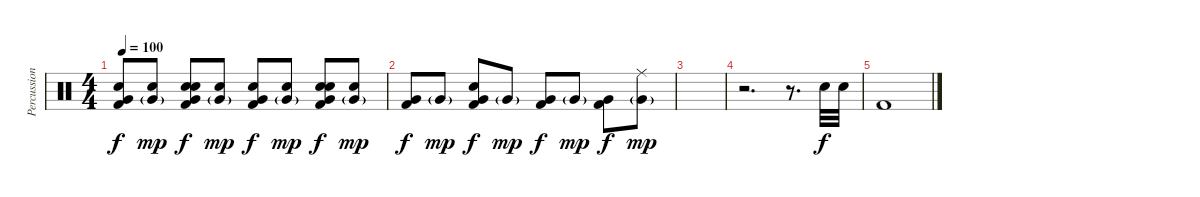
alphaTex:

\track ("Percussion" "Percussion") {instrument percussion}
\staff {score}
\articulation defaults
\ts (4 4)
\tempo 100
\clef neutral
\ks c
("Hand Clap (hit)" "Very Low Tom (hit)" "Kick (hit) 2").8{dy f} ("Hand Clap (hit)" "Very Low Tom (hit)"{g}).8{dy mp} ("Hand Clap (hit)" "Snare (hit) 2" "Very Low Tom (hit)" "Kick (hit) 2").8{dy f} ("Hand Clap (hit)" "Very Low Tom (hit)"{g}).8{dy mp} ("Hand Clap (hit)" "Very Low Tom (hit)" "Kick (hit) 2").8{dy f} ("Hand Clap (hit)" "Very Low Tom (hit)"{g}).8{dy mp} ("Hand Clap (hit)" "Snare (hit) 2" "Very Low Tom (hit)" "Kick (hit) 2").8{dy f} ("Hand Clap (hit)" "Very Low Tom (hit)"{g}).8{dy mp} |
("Very Low Tom (hit)" "Kick (hit) 2").8{dy f} "Very Low Tom (hit)"{g}.8{dy mp} ("Snare (hit) 2" "Very Low Tom (hit)" "Kick (hit) 2").8{dy f} "Very Low Tom (hit)"{g}.8{dy mp} ("Very Low Tom (hit)" "Kick (hit) 2").8{dy f} "Very Low Tom (hit)"{g}.8{dy mp} ("Very Low Tom (hit)" "Kick (hit) 2").8{dy f} ("Ride (middle)" "Very Low Tom (hit)"{g}).8{dy mp} |
|
r.2{d} r.8{d} "Snare (hit) 2".32{dy f} "Snare (hit) 2".32 |
"Kick (hit) 2".1
